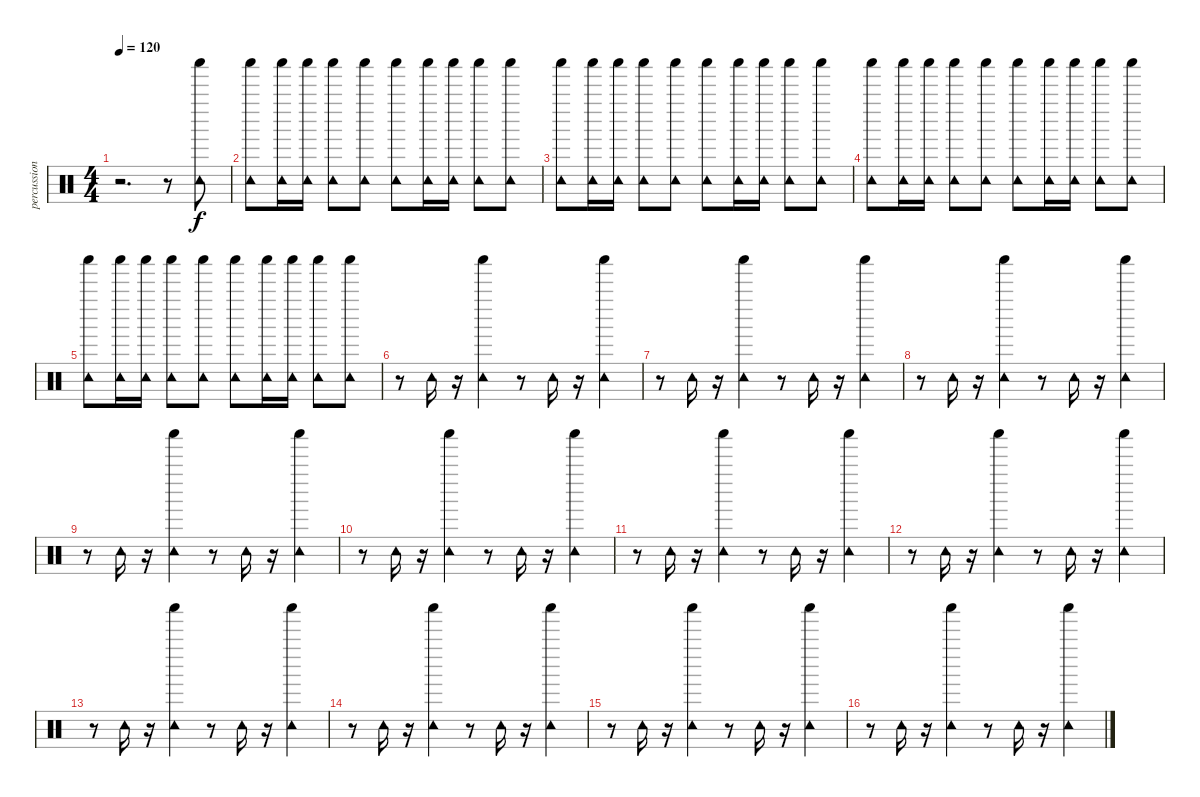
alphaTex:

\track ("percussion" "percussion") {instrument percussion}
\staff {score}
\articulation defaults
\ts (4 4)
\tempo 120
\clef neutral
\ks c
r.2{d dy f} r.8 ("Tambourine (hit)" "Shaker (hit)").8 |
("Tambourine (hit)" "Shaker (hit)").8 ("Tambourine (hit)" "Shaker (hit)").16 ("Tambourine (hit)" "Shaker (hit)").16 ("Tambourine (hit)" "Shaker (hit)").8 ("Tambourine (hit)" "Shaker (hit)").8 ("Tambourine (hit)" "Shaker (hit)").8 ("Tambourine (hit)" "Shaker (hit)").16 ("Tambourine (hit)" "Shaker (hit)").16 ("Tambourine (hit)" "Shaker (hit)").8 ("Tambourine (hit)" "Shaker (hit)").8 |
("Tambourine (hit)" "Shaker (hit)").8 ("Tambourine (hit)" "Shaker (hit)").16 ("Tambourine (hit)" "Shaker (hit)").16 ("Tambourine (hit)" "Shaker (hit)").8 ("Tambourine (hit)" "Shaker (hit)").8 ("Tambourine (hit)" "Shaker (hit)").8 ("Tambourine (hit)" "Shaker (hit)").16 ("Tambourine (hit)" "Shaker (hit)").16 ("Tambourine (hit)" "Shaker (hit)").8 ("Tambourine (hit)" "Shaker (hit)").8 |
("Tambourine (hit)" "Shaker (hit)").8 ("Tambourine (hit)" "Shaker (hit)").16 ("Tambourine (hit)" "Shaker (hit)").16 ("Tambourine (hit)" "Shaker (hit)").8 ("Tambourine (hit)" "Shaker (hit)").8 ("Tambourine (hit)" "Shaker (hit)").8 ("Tambourine (hit)" "Shaker (hit)").16 ("Tambourine (hit)" "Shaker (hit)").16 ("Tambourine (hit)" "Shaker (hit)").8 ("Tambourine (hit)" "Shaker (hit)").8 |
("Tambourine (hit)" "Shaker (hit)").8 ("Tambourine (hit)" "Shaker (hit)").16 ("Tambourine (hit)" "Shaker (hit)").16 ("Tambourine (hit)" "Shaker (hit)").8 ("Tambourine (hit)" "Shaker (hit)").8 ("Tambourine (hit)" "Shaker (hit)").8 ("Tambourine (hit)" "Shaker (hit)").16 ("Tambourine (hit)" "Shaker (hit)").16 ("Tambourine (hit)" "Shaker (hit)").8 ("Tambourine (hit)" "Shaker (hit)").8 |
r.8 "Tambourine (hit)".16 r.16 ("Tambourine (hit)" "Shaker (hit)").4 r.8 "Tambourine (hit)".16 r.16 ("Tambourine (hit)" "Shaker (hit)").4 |
r.8 "Tambourine (hit)".16 r.16 ("Tambourine (hit)" "Shaker (hit)").4 r.8 "Tambourine (hit)".16 r.16 ("Tambourine (hit)" "Shaker (hit)").4 |
r.8 "Tambourine (hit)".16 r.16 ("Tambourine (hit)" "Shaker (hit)").4 r.8 "Tambourine (hit)".16 r.16 ("Tambourine (hit)" "Shaker (hit)").4 |
r.8 "Tambourine (hit)".16 r.16 ("Tambourine (hit)" "Shaker (hit)").4 r.8 "Tambourine (hit)".16 r.16 ("Tambourine (hit)" "Shaker (hit)").4 |
r.8 "Tambourine (hit)".16 r.16 ("Tambourine (hit)" "Shaker (hit)").4 r.8 "Tambourine (hit)".16 r.16 ("Tambourine (hit)" "Shaker (hit)").4 |
r.8 "Tambourine (hit)".16 r.16 ("Tambourine (hit)" "Shaker (hit)").4 r.8 "Tambourine (hit)".16 r.16 ("Tambourine (hit)" "Shaker (hit)").4 |
r.8 "Tambourine (hit)".16 r.16 ("Tambourine (hit)" "Shaker (hit)").4 r.8 "Tambourine (hit)".16 r.16 ("Tambourine (hit)" "Shaker (hit)").4 |
r.8 "Tambourine (hit)".16 r.16 ("Tambourine (hit)" "Shaker (hit)").4 r.8 "Tambourine (hit)".16 r.16 ("Tambourine (hit)" "Shaker (hit)").4 |
r.8 "Tambourine (hit)".16 r.16 ("Tambourine (hit)" "Shaker (hit)").4 r.8 "Tambourine (hit)".16 r.16 ("Tambourine (hit)" "Shaker (hit)").4 |
r.8 "Tambourine (hit)".16 r.16 ("Tambourine (hit)" "Shaker (hit)").4 r.8 "Tambourine (hit)".16 r.16 ("Tambourine (hit)" "Shaker (hit)").4 |
r.8 "Tambourine (hit)".16 r.16 ("Tambourine (hit)" "Shaker (hit)").4 r.8 "Tambourine (hit)".16 r.16 ("Tambourine (hit)" "Shaker (hit)").4
